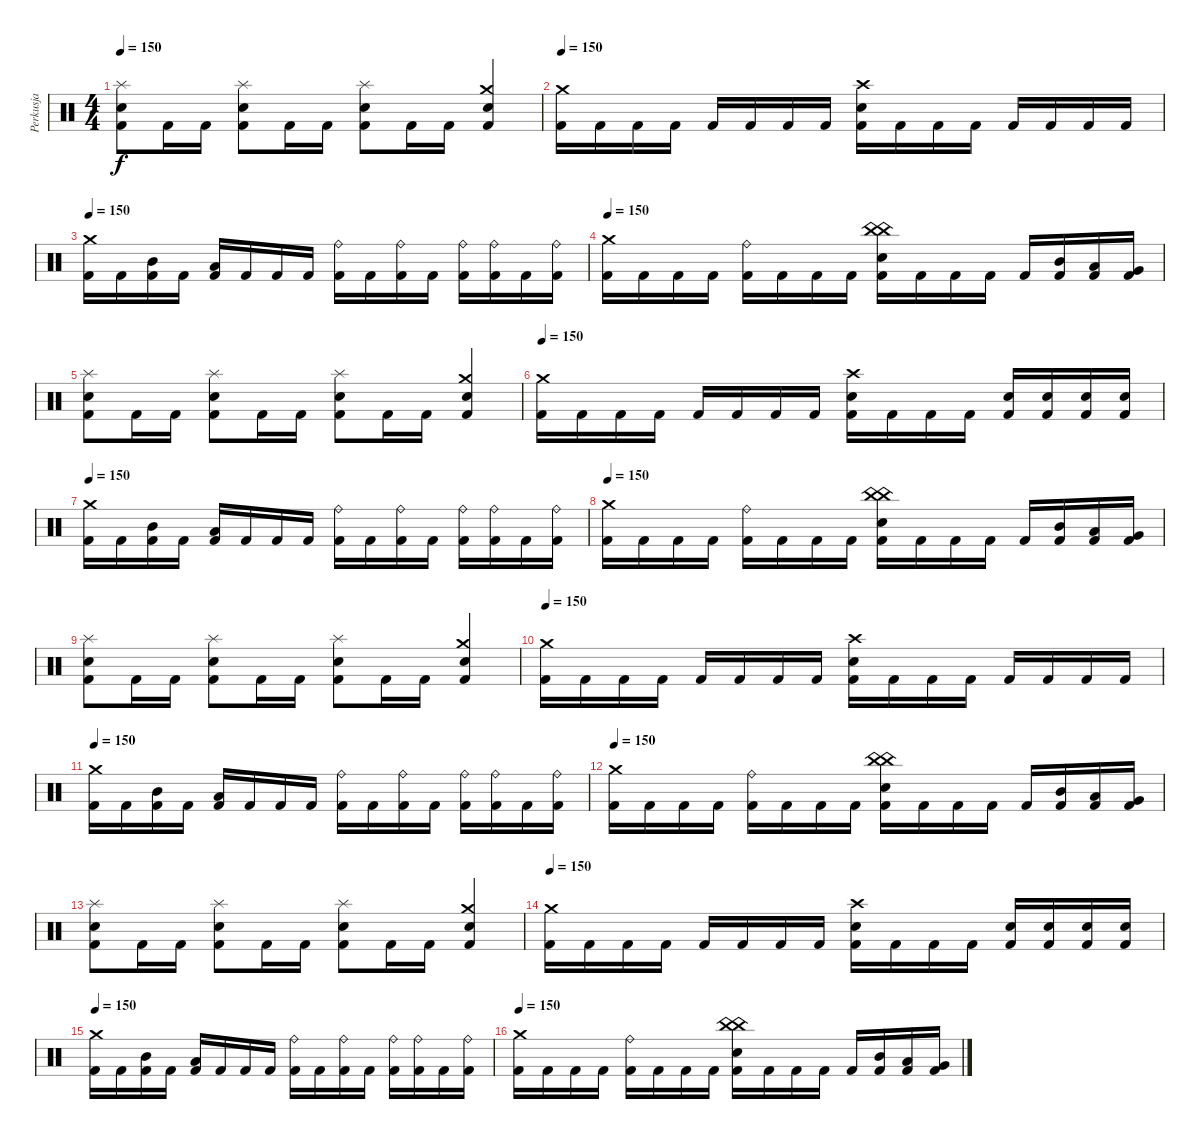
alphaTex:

\track ("Perkusja" "Perkusja") {instrument percussion}
\staff {score}
\articulation defaults
\ts (4 4)
\tempo 150
\clef neutral
\ks c
("Splash (hit)" "Snare (hit) 2" "Kick (hit) 2").8{dy f} "Kick (hit) 2".16 "Kick (hit) 2".16 ("Splash (hit)" "Snare (hit) 2" "Kick (hit) 2").8 "Kick (hit) 2".16 "Kick (hit) 2".16 ("Splash (hit)" "Snare (hit) 2" "Kick (hit) 2").8 "Kick (hit) 2".16 "Kick (hit) 2".16 ("Crash medium (hit)" "Electric Snare (hit)" "Kick (hit) 2").4 |
\tempo 150
("Crash medium (hit)" "Kick (hit) 2").16 "Kick (hit) 2".16 "Kick (hit) 2".16 "Kick (hit) 2".16 "Kick (hit) 2".16 "Kick (hit) 2".16 "Kick (hit) 2".16 "Kick (hit) 2".16 ("Crash high (hit)" "Snare (hit) 2" "Kick (hit) 2").16 "Kick (hit) 2".16 "Kick (hit) 2".16 "Kick (hit) 2".16 "Kick (hit) 2".16 "Kick (hit) 2".16 "Kick (hit) 2".16 "Kick (hit) 2".16 |
\tempo 150
("Crash medium (hit)" "Kick (hit) 2").16 "Kick (hit) 2".16 ("Mid Tom (hit)" "Kick (hit) 2").16 "Kick (hit) 2".16 ("Low Tom (hit)" "Kick (hit) 2").16 "Kick (hit) 2".16 "Kick (hit) 2".16 "Kick (hit) 2".16 ("Ride (bell)" "Kick (hit) 2").16 "Kick (hit) 2".16 ("Ride (bell)" "Kick (hit) 2").16 "Kick (hit) 2".16 ("Ride (bell)" "Kick (hit) 2").16 ("Ride (bell)" "Kick (hit) 2").16 "Kick (hit) 2".16 ("Ride (bell)" "Kick (hit) 2").16 |
\tempo 150
("Crash medium (hit)" "Kick (hit) 2").16 "Kick (hit) 2".16 "Kick (hit) 2".16 "Kick (hit) 2".16 ("Ride (bell)" "Kick (hit) 2").16 "Kick (hit) 2".16 "Kick (hit) 2".16 "Kick (hit) 2".16 ("China (hit)" "China (hit)" "Snare (hit) 2" "Kick (hit) 2").16 "Kick (hit) 2".16 "Kick (hit) 2".16 "Kick (hit) 2".16 "Kick (hit) 2".16 ("Mid Tom (hit)" "Kick (hit) 2").16 ("Low Tom (hit)" "Kick (hit) 2").16 ("Very Low Tom (hit)" "Kick (hit) 2").16 |
("Splash (hit)" "Snare (hit) 2" "Kick (hit) 2").8 "Kick (hit) 2".16 "Kick (hit) 2".16 ("Splash (hit)" "Snare (hit) 2" "Kick (hit) 2").8 "Kick (hit) 2".16 "Kick (hit) 2".16 ("Splash (hit)" "Snare (hit) 2" "Kick (hit) 2").8 "Kick (hit) 2".16 "Kick (hit) 2".16 ("Crash medium (hit)" "Electric Snare (hit)" "Kick (hit) 2").4 |
\tempo 150
("Crash medium (hit)" "Kick (hit) 2").16 "Kick (hit) 2".16 "Kick (hit) 2".16 "Kick (hit) 2".16 "Kick (hit) 2".16 "Kick (hit) 2".16 "Kick (hit) 2".16 "Kick (hit) 2".16 ("Crash high (hit)" "Snare (hit) 2" "Kick (hit) 2").16 "Kick (hit) 2".16 "Kick (hit) 2".16 "Kick (hit) 2".16 ("Electric Snare (hit)" "Kick (hit) 2").16 ("Electric Snare (hit)" "Kick (hit) 2").16 ("Electric Snare (hit)" "Kick (hit) 2").16 ("Electric Snare (hit)" "Kick (hit) 2").16 |
\tempo 150
("Crash medium (hit)" "Kick (hit) 2").16 "Kick (hit) 2".16 ("Mid Tom (hit)" "Kick (hit) 2").16 "Kick (hit) 2".16 ("Low Tom (hit)" "Kick (hit) 2").16 "Kick (hit) 2".16 "Kick (hit) 2".16 "Kick (hit) 2".16 ("Ride (bell)" "Kick (hit) 2").16 "Kick (hit) 2".16 ("Ride (bell)" "Kick (hit) 2").16 "Kick (hit) 2".16 ("Ride (bell)" "Kick (hit) 2").16 ("Ride (bell)" "Kick (hit) 2").16 "Kick (hit) 2".16 ("Ride (bell)" "Kick (hit) 2").16 |
\tempo 150
("Crash medium (hit)" "Kick (hit) 2").16 "Kick (hit) 2".16 "Kick (hit) 2".16 "Kick (hit) 2".16 ("Ride (bell)" "Kick (hit) 2").16 "Kick (hit) 2".16 "Kick (hit) 2".16 "Kick (hit) 2".16 ("China (hit)" "China (hit)" "Snare (hit) 2" "Kick (hit) 2").16 "Kick (hit) 2".16 "Kick (hit) 2".16 "Kick (hit) 2".16 "Kick (hit) 2".16 ("Mid Tom (hit)" "Kick (hit) 2").16 ("Low Tom (hit)" "Kick (hit) 2").16 ("Very Low Tom (hit)" "Kick (hit) 2").16 |
("Splash (hit)" "Snare (hit) 2" "Kick (hit) 2").8 "Kick (hit) 2".16 "Kick (hit) 2".16 ("Splash (hit)" "Snare (hit) 2" "Kick (hit) 2").8 "Kick (hit) 2".16 "Kick (hit) 2".16 ("Splash (hit)" "Snare (hit) 2" "Kick (hit) 2").8 "Kick (hit) 2".16 "Kick (hit) 2".16 ("Crash medium (hit)" "Electric Snare (hit)" "Kick (hit) 2").4 |
\tempo 150
("Crash medium (hit)" "Kick (hit) 2").16 "Kick (hit) 2".16 "Kick (hit) 2".16 "Kick (hit) 2".16 "Kick (hit) 2".16 "Kick (hit) 2".16 "Kick (hit) 2".16 "Kick (hit) 2".16 ("Crash high (hit)" "Snare (hit) 2" "Kick (hit) 2").16 "Kick (hit) 2".16 "Kick (hit) 2".16 "Kick (hit) 2".16 "Kick (hit) 2".16 "Kick (hit) 2".16 "Kick (hit) 2".16 "Kick (hit) 2".16 |
\tempo 150
("Crash medium (hit)" "Kick (hit) 2").16 "Kick (hit) 2".16 ("Mid Tom (hit)" "Kick (hit) 2").16 "Kick (hit) 2".16 ("Low Tom (hit)" "Kick (hit) 2").16 "Kick (hit) 2".16 "Kick (hit) 2".16 "Kick (hit) 2".16 ("Ride (bell)" "Kick (hit) 2").16 "Kick (hit) 2".16 ("Ride (bell)" "Kick (hit) 2").16 "Kick (hit) 2".16 ("Ride (bell)" "Kick (hit) 2").16 ("Ride (bell)" "Kick (hit) 2").16 "Kick (hit) 2".16 ("Ride (bell)" "Kick (hit) 2").16 |
\tempo 150
("Crash medium (hit)" "Kick (hit) 2").16 "Kick (hit) 2".16 "Kick (hit) 2".16 "Kick (hit) 2".16 ("Ride (bell)" "Kick (hit) 2").16 "Kick (hit) 2".16 "Kick (hit) 2".16 "Kick (hit) 2".16 ("China (hit)" "China (hit)" "Snare (hit) 2" "Kick (hit) 2").16 "Kick (hit) 2".16 "Kick (hit) 2".16 "Kick (hit) 2".16 "Kick (hit) 2".16 ("Mid Tom (hit)" "Kick (hit) 2").16 ("Low Tom (hit)" "Kick (hit) 2").16 ("Very Low Tom (hit)" "Kick (hit) 2").16 |
("Splash (hit)" "Snare (hit) 2" "Kick (hit) 2").8 "Kick (hit) 2".16 "Kick (hit) 2".16 ("Splash (hit)" "Snare (hit) 2" "Kick (hit) 2").8 "Kick (hit) 2".16 "Kick (hit) 2".16 ("Splash (hit)" "Snare (hit) 2" "Kick (hit) 2").8 "Kick (hit) 2".16 "Kick (hit) 2".16 ("Crash medium (hit)" "Electric Snare (hit)" "Kick (hit) 2").4 |
\tempo 150
("Crash medium (hit)" "Kick (hit) 2").16 "Kick (hit) 2".16 "Kick (hit) 2".16 "Kick (hit) 2".16 "Kick (hit) 2".16 "Kick (hit) 2".16 "Kick (hit) 2".16 "Kick (hit) 2".16 ("Crash high (hit)" "Snare (hit) 2" "Kick (hit) 2").16 "Kick (hit) 2".16 "Kick (hit) 2".16 "Kick (hit) 2".16 ("Electric Snare (hit)" "Kick (hit) 2").16 ("Electric Snare (hit)" "Kick (hit) 2").16 ("Electric Snare (hit)" "Kick (hit) 2").16 ("Electric Snare (hit)" "Kick (hit) 2").16 |
\tempo 150
("Crash medium (hit)" "Kick (hit) 2").16 "Kick (hit) 2".16 ("Mid Tom (hit)" "Kick (hit) 2").16 "Kick (hit) 2".16 ("Low Tom (hit)" "Kick (hit) 2").16 "Kick (hit) 2".16 "Kick (hit) 2".16 "Kick (hit) 2".16 ("Ride (bell)" "Kick (hit) 2").16 "Kick (hit) 2".16 ("Ride (bell)" "Kick (hit) 2").16 "Kick (hit) 2".16 ("Ride (bell)" "Kick (hit) 2").16 ("Ride (bell)" "Kick (hit) 2").16 "Kick (hit) 2".16 ("Ride (bell)" "Kick (hit) 2").16 |
\tempo 150
("Crash medium (hit)" "Kick (hit) 2").16 "Kick (hit) 2".16 "Kick (hit) 2".16 "Kick (hit) 2".16 ("Ride (bell)" "Kick (hit) 2").16 "Kick (hit) 2".16 "Kick (hit) 2".16 "Kick (hit) 2".16 ("China (hit)" "China (hit)" "Snare (hit) 2" "Kick (hit) 2").16 "Kick (hit) 2".16 "Kick (hit) 2".16 "Kick (hit) 2".16 "Kick (hit) 2".16 ("Mid Tom (hit)" "Kick (hit) 2").16 ("Low Tom (hit)" "Kick (hit) 2").16 ("Very Low Tom (hit)" "Kick (hit) 2").16
